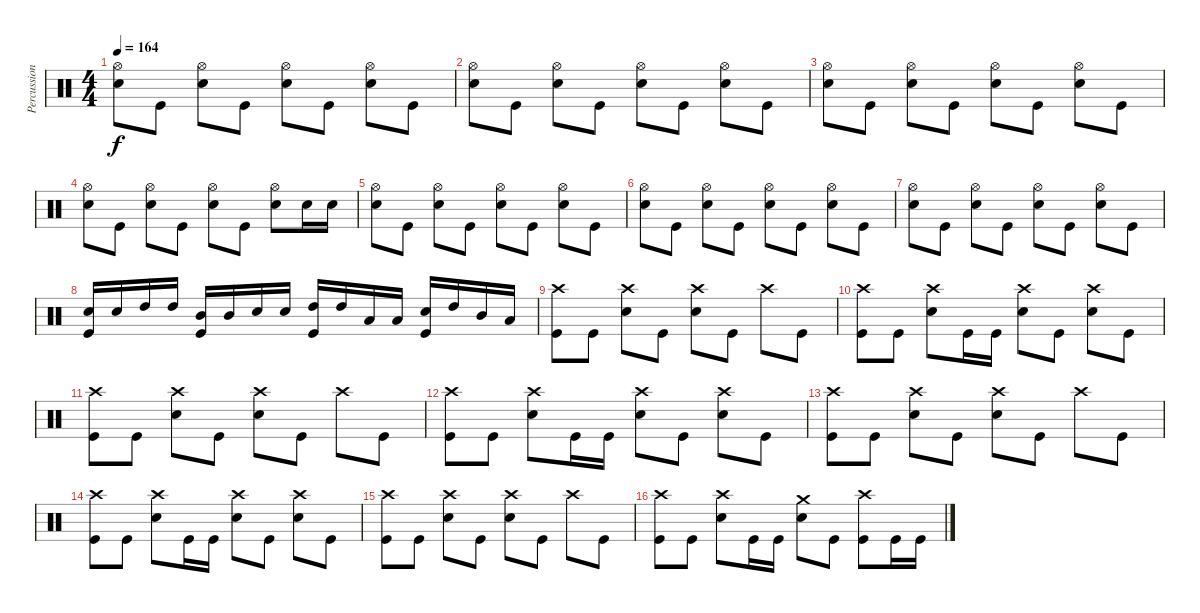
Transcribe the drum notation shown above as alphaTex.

\track ("Percussion" "Percussion") {instrument percussion}
\staff {score}
\articulation defaults
\ts (4 4)
\tempo 164
\clef neutral
\ks c
("Hi-Hat (open)" "Electric Snare (hit)").8{dy f} "Kick (hit)".8 ("Hi-Hat (open)" "Electric Snare (hit)").8 "Kick (hit)".8 ("Hi-Hat (open)" "Electric Snare (hit)").8 "Kick (hit)".8 ("Hi-Hat (open)" "Electric Snare (hit)").8 "Kick (hit)".8 |
("Hi-Hat (open)" "Electric Snare (hit)").8 "Kick (hit)".8 ("Hi-Hat (open)" "Electric Snare (hit)").8 "Kick (hit)".8 ("Hi-Hat (open)" "Electric Snare (hit)").8 "Kick (hit)".8 ("Hi-Hat (open)" "Electric Snare (hit)").8 "Kick (hit)".8 |
("Hi-Hat (open)" "Electric Snare (hit)").8 "Kick (hit)".8 ("Hi-Hat (open)" "Electric Snare (hit)").8 "Kick (hit)".8 ("Hi-Hat (open)" "Electric Snare (hit)").8 "Kick (hit)".8 ("Hi-Hat (open)" "Electric Snare (hit)").8 "Kick (hit)".8 |
("Hi-Hat (open)" "Electric Snare (hit)").8 "Kick (hit)".8 ("Hi-Hat (open)" "Electric Snare (hit)").8 "Kick (hit)".8 ("Hi-Hat (open)" "Electric Snare (hit)").8 "Kick (hit)".8 ("Hi-Hat (open)" "Electric Snare (hit)").8 "Electric Snare (hit)".16 "Electric Snare (hit)".16 |
("Hi-Hat (open)" "Electric Snare (hit)").8 "Kick (hit)".8 ("Hi-Hat (open)" "Electric Snare (hit)").8 "Kick (hit)".8 ("Hi-Hat (open)" "Electric Snare (hit)").8 "Kick (hit)".8 ("Hi-Hat (open)" "Electric Snare (hit)").8 "Kick (hit)".8 |
("Hi-Hat (open)" "Electric Snare (hit)").8 "Kick (hit)".8 ("Hi-Hat (open)" "Electric Snare (hit)").8 "Kick (hit)".8 ("Hi-Hat (open)" "Electric Snare (hit)").8 "Kick (hit)".8 ("Hi-Hat (open)" "Electric Snare (hit)").8 "Kick (hit)".8 |
("Hi-Hat (open)" "Electric Snare (hit)").8 "Kick (hit)".8 ("Hi-Hat (open)" "Electric Snare (hit)").8 "Kick (hit)".8 ("Hi-Hat (open)" "Electric Snare (hit)").8 "Kick (hit)".8 ("Hi-Hat (open)" "Electric Snare (hit)").8 "Kick (hit)".8 |
("Electric Snare (hit)" "Kick (hit)").16 "Electric Snare (hit)".16 "High Tom (hit)".16 "High Tom (hit)".16 ("Mid Tom (hit)" "Kick (hit)").16 "Mid Tom (hit)".16 "Electric Snare (hit)".16 "Electric Snare (hit)".16 ("High Tom (hit)" "Kick (hit)").16 "High Tom (hit)".16 "Low Tom (hit)".16 "Low Tom (hit)".16 ("Electric Snare (hit)" "Kick (hit)").16 "High Tom (hit)".16 "Mid Tom (hit)".16 "Low Tom (hit)".16 |
("Crash high (hit)" "Kick (hit)").8 "Kick (hit)".8 ("Crash high (hit)" "Electric Snare (hit)").8 "Kick (hit)".8 ("Crash high (hit)" "Electric Snare (hit)").8 "Kick (hit)".8 "Crash high (hit)".8 "Kick (hit)".8 |
("Crash high (hit)" "Kick (hit)").8 "Kick (hit)".8 ("Crash high (hit)" "Electric Snare (hit)").8 "Kick (hit)".16 "Kick (hit)".16 ("Crash high (hit)" "Electric Snare (hit)").8 "Kick (hit)".8 ("Crash high (hit)" "Electric Snare (hit)").8 "Kick (hit)".8 |
("Crash high (hit)" "Kick (hit)").8 "Kick (hit)".8 ("Crash high (hit)" "Electric Snare (hit)").8 "Kick (hit)".8 ("Crash high (hit)" "Electric Snare (hit)").8 "Kick (hit)".8 "Crash high (hit)".8 "Kick (hit)".8 |
("Crash high (hit)" "Kick (hit)").8 "Kick (hit)".8 ("Crash high (hit)" "Electric Snare (hit)").8 "Kick (hit)".16 "Kick (hit)".16 ("Crash high (hit)" "Electric Snare (hit)").8 "Kick (hit)".8 ("Crash high (hit)" "Electric Snare (hit)").8 "Kick (hit)".8 |
("Crash high (hit)" "Kick (hit)").8 "Kick (hit)".8 ("Crash high (hit)" "Electric Snare (hit)").8 "Kick (hit)".8 ("Crash high (hit)" "Electric Snare (hit)").8 "Kick (hit)".8 "Crash high (hit)".8 "Kick (hit)".8 |
("Crash high (hit)" "Kick (hit)").8 "Kick (hit)".8 ("Crash high (hit)" "Electric Snare (hit)").8 "Kick (hit)".16 "Kick (hit)".16 ("Crash high (hit)" "Electric Snare (hit)").8 "Kick (hit)".8 ("Crash high (hit)" "Electric Snare (hit)").8 "Kick (hit)".8 |
("Crash high (hit)" "Kick (hit)").8 "Kick (hit)".8 ("Crash high (hit)" "Electric Snare (hit)").8 "Kick (hit)".8 ("Crash high (hit)" "Electric Snare (hit)").8 "Kick (hit)".8 "Crash high (hit)".8 "Kick (hit)".8 |
("Crash high (hit)" "Kick (hit)").8 "Kick (hit)".8 ("Crash high (hit)" "Electric Snare (hit)").8 "Kick (hit)".16 "Kick (hit)".16 ("Crash medium (hit)" "Electric Snare (hit)").8 "Kick (hit)".8 ("Crash high (hit)" "Kick (hit)").8 "Kick (hit)".16 "Kick (hit)".16
